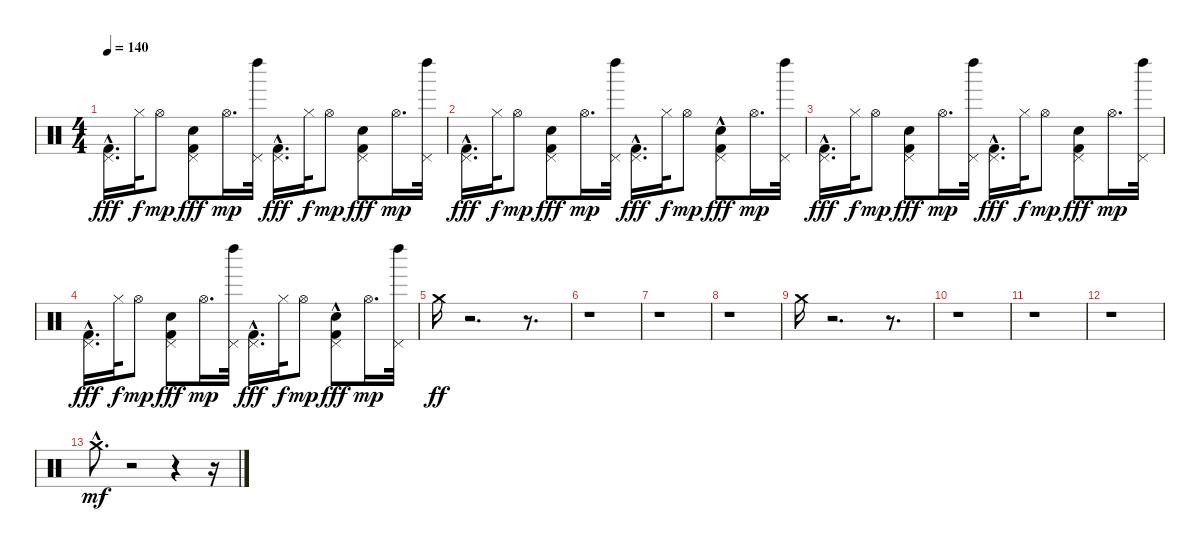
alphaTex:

\track "" {instrument percussion}
\staff {score}
\articulation defaults
\ts (4 4)
\tempo 140
\clef neutral
\ks c
("Kick (hit) 2" "Pedal Hi-Hat (hit)"{hac}).16{d dy fff} "Hi-Hat (closed)".32{dy f} "Hi-Hat (open)".8{dy mp} ("Pedal Hi-Hat (hit)" "Kick (hit) 2" "Hand Clap (hit)").8{dy fff} "Hi-Hat (open)".16{d dy mp} ("Left Maraca (hit)" "Pedal Hi-Hat (hit)").32 ("Kick (hit) 2" "Pedal Hi-Hat (hit)"{hac}).16{d dy fff} "Hi-Hat (closed)".32{dy f} "Hi-Hat (open)".8{dy mp} ("Hand Clap (hit)" "Kick (hit) 2" "Pedal Hi-Hat (hit)").8{dy fff} "Hi-Hat (open)".16{d dy mp} ("Pedal Hi-Hat (hit)" "Left Maraca (hit)").32 |
("Kick (hit) 2" "Pedal Hi-Hat (hit)"{hac}).16{d dy fff} "Hi-Hat (closed)".32{dy f} "Hi-Hat (open)".8{dy mp} ("Hand Clap (hit)" "Kick (hit) 2" "Pedal Hi-Hat (hit)").8{dy fff} "Hi-Hat (open)".16{d dy mp} ("Pedal Hi-Hat (hit)" "Left Maraca (hit)").32 ("Pedal Hi-Hat (hit)"{hac} "Kick (hit) 2").16{d dy fff} "Hi-Hat (closed)".32{dy f} "Hi-Hat (open)".8{dy mp} ("Pedal Hi-Hat (hit)" "Kick (hit) 2" "Hand Clap (hit)"{hac}).8{dy fff} "Hi-Hat (open)".16{d dy mp} ("Pedal Hi-Hat (hit)" "Left Maraca (hit)").32 |
("Kick (hit) 2" "Pedal Hi-Hat (hit)"{hac}).16{d dy fff} "Hi-Hat (closed)".32{dy f} "Hi-Hat (open)".8{dy mp} ("Pedal Hi-Hat (hit)" "Kick (hit) 2" "Hand Clap (hit)").8{dy fff} "Hi-Hat (open)".16{d dy mp} ("Pedal Hi-Hat (hit)" "Left Maraca (hit)").32 ("Pedal Hi-Hat (hit)"{hac} "Kick (hit) 2").16{d dy fff} "Hi-Hat (closed)".32{dy f} "Hi-Hat (open)".8{dy mp} ("Hand Clap (hit)" "Pedal Hi-Hat (hit)" "Kick (hit) 2").8{dy fff} "Hi-Hat (open)".16{d dy mp} ("Pedal Hi-Hat (hit)" "Left Maraca (hit)").32 |
("Kick (hit) 2" "Pedal Hi-Hat (hit)"{hac}).16{d dy fff} "Hi-Hat (closed)".32{dy f} "Hi-Hat (open)".8{dy mp} ("Hand Clap (hit)" "Pedal Hi-Hat (hit)" "Kick (hit) 2").8{dy fff} "Hi-Hat (open)".16{d dy mp} ("Left Maraca (hit)" "Pedal Hi-Hat (hit)").32 ("Pedal Hi-Hat (hit)"{hac} "Kick (hit) 2").16{d dy fff} "Hi-Hat (closed)".32{dy f} "Hi-Hat (open)".8{dy mp} ("Pedal Hi-Hat (hit)" "Kick (hit) 2" "Hand Clap (hit)"{hac}).8{dy fff} "Hi-Hat (open)".16{d dy mp} ("Pedal Hi-Hat (hit)" "Left Maraca (hit)").32 |
"Crash medium (hit)".16{dy ff} r.2{d} r.8{d} |
r.1 |
r.1 |
r.1 |
"Crash medium (hit)".16 r.2{d} r.8{d} |
r.1 |
r.1 |
r.1 |
"Crash medium (hit)"{hac}.8{d dy mf} r.2 r.4 r.16
